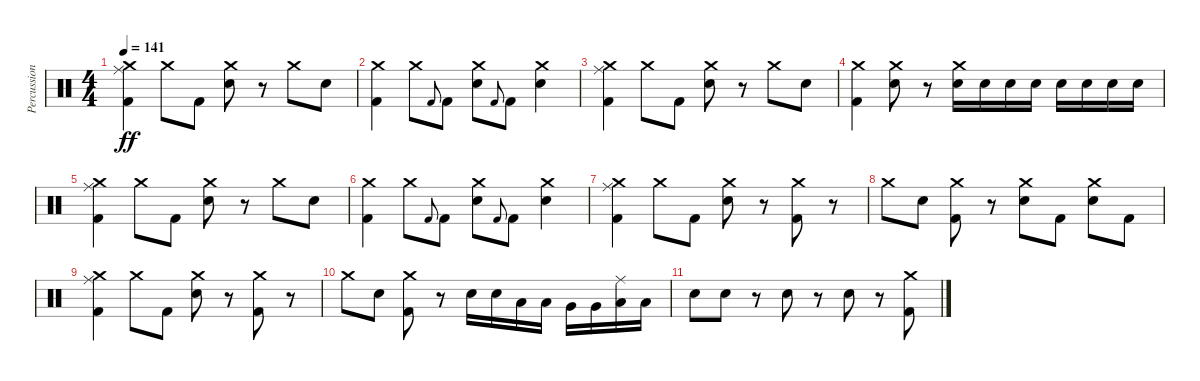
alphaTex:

\track ("Percussion" "Percussion") {instrument percussion}
\staff {score}
\articulation defaults
\ts (4 4)
\tempo 141
\clef neutral
\ks c
("Ride (middle)" "Crash medium (hit)" "Kick (hit) 2").4{dy ff} "Crash medium (hit)".8 "Kick (hit) 2".8 ("Crash medium (hit)" "Electric Snare (hit)").8 r.8 "Crash medium (hit)".8 "Electric Snare (hit)".8 |
("Crash medium (hit)" "Kick (hit) 2").4 "Crash medium (hit)".8 "Kick (hit) 2".8{gr onbeat} "Kick (hit) 2".8 ("Crash medium (hit)" "Electric Snare (hit)").8 "Kick (hit) 2".8{gr onbeat} "Kick (hit) 2".8 ("Crash medium (hit)" "Electric Snare (hit)").4 |
("Ride (middle)" "Crash medium (hit)" "Kick (hit) 2").4 "Crash medium (hit)".8 "Kick (hit) 2".8 ("Crash medium (hit)" "Electric Snare (hit)").8 r.8 "Crash medium (hit)".8 "Electric Snare (hit)".8 |
("Crash medium (hit)" "Kick (hit) 2").4 ("Crash medium (hit)" "Electric Snare (hit)").8 r.8 ("Crash medium (hit)" "Electric Snare (hit)").16 "Electric Snare (hit)".16 "Electric Snare (hit)".16 "Electric Snare (hit)".16 "Electric Snare (hit)".16 "Electric Snare (hit)".16 "Electric Snare (hit)".16 "Electric Snare (hit)".16 |
("Ride (middle)" "Crash medium (hit)" "Kick (hit) 2").4 "Crash medium (hit)".8 "Kick (hit) 2".8 ("Crash medium (hit)" "Electric Snare (hit)").8 r.8 "Crash medium (hit)".8 "Electric Snare (hit)".8 |
("Crash medium (hit)" "Kick (hit) 2").4 "Crash medium (hit)".8 "Kick (hit) 2".8{gr onbeat} "Kick (hit) 2".8 ("Crash medium (hit)" "Electric Snare (hit)").8 "Kick (hit) 2".8{gr onbeat} "Kick (hit) 2".8 ("Crash medium (hit)" "Electric Snare (hit)").4 |
("Ride (middle)" "Crash medium (hit)" "Kick (hit) 2").4 "Crash medium (hit)".8 "Kick (hit) 2".8 ("Crash medium (hit)" "Electric Snare (hit)").8 r.8 ("Crash medium (hit)" "Kick (hit) 2").8 r.8 |
"Crash medium (hit)".8 "Electric Snare (hit)".8 ("Crash medium (hit)" "Kick (hit) 2").8 r.8 ("Crash medium (hit)" "Electric Snare (hit)").8 "Kick (hit) 2".8 ("Crash medium (hit)" "Electric Snare (hit)").8 "Kick (hit) 2".8 |
("Ride (middle)" "Crash medium (hit)" "Kick (hit) 2").4 "Crash medium (hit)".8 "Kick (hit) 2".8 ("Crash medium (hit)" "Electric Snare (hit)").8 r.8 ("Crash medium (hit)" "Kick (hit) 2").8 r.8 |
"Crash medium (hit)".8 "Electric Snare (hit)".8 ("Crash medium (hit)" "Kick (hit) 2").8 r.8 "Electric Snare (hit)".16 "Electric Snare (hit)".16 "Low Tom (hit)".16 "Low Tom (hit)".16 "Very Low Tom (hit)".16 "Very Low Tom (hit)".16 ("Ride (middle)" "Low Floor Tom (hit)").16 "Low Floor Tom (hit)".16 |
"Electric Snare (hit)".8{volume 10} "Electric Snare (hit)".8 r.8 "Electric Snare (hit)".8 r.8 "Electric Snare (hit)".8 r.8 ("Crash medium (hit)" "Kick (hit) 2").8
